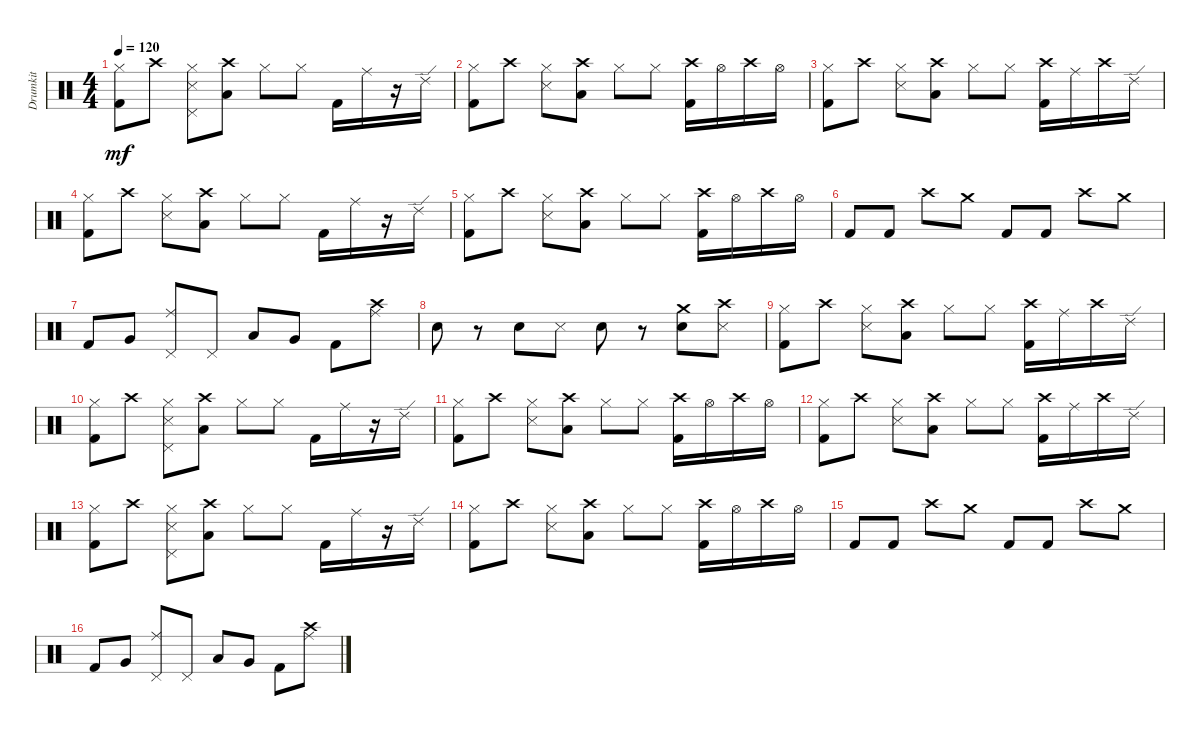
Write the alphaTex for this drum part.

\track ("Drumkit" "Drumkit") {instrument percussion}
\staff {score}
\articulation defaults
\ts (4 4)
\tempo 120
\clef neutral
\ks c
("Hi-Hat (closed)" "Kick (hit) 2").8{dy mf} "Crash high (hit)".8 ("Hi-Hat (closed)" "Snare (side stick) 3" "Pedal Hi-Hat (hit)").8 ("Crash high (hit)" "Low Floor Tom (hit)").8 "Hi-Hat (closed)".8 "Hi-Hat (closed)".8 "Kick (hit) 2".16 "Ride (middle)".16 r.16 "Ride (edge) 2".16 |
("Hi-Hat (closed)" "Kick (hit) 2").8 "Crash high (hit)".8 ("Hi-Hat (closed)" "Snare (side stick) 3").8 ("Crash high (hit)" "Low Floor Tom (hit)").8 "Hi-Hat (closed)".8 "Hi-Hat (closed)".8 ("Crash high (hit)" "Kick (hit) 2").16 "Hi-Hat (open)".16 "Crash high (hit)".16 "Hi-Hat (open)".16 |
("Hi-Hat (closed)" "Kick (hit) 2").8 "Crash high (hit)".8 ("Hi-Hat (closed)" "Snare (side stick) 3").8 ("Crash high (hit)" "Low Floor Tom (hit)").8 "Hi-Hat (closed)".8 "Hi-Hat (closed)".8 ("Crash high (hit)" "Kick (hit) 2").16 "Ride (middle)".16 "Crash high (hit)".16 "Ride (edge) 2".16 |
("Hi-Hat (closed)" "Kick (hit) 2").8 "Crash high (hit)".8 ("Hi-Hat (closed)" "Snare (side stick) 3").8 ("Crash high (hit)" "Low Floor Tom (hit)").8 "Hi-Hat (closed)".8 "Hi-Hat (closed)".8 "Kick (hit) 2".16 "Ride (middle)".16 r.16 "Ride (edge) 2".16 |
("Hi-Hat (closed)" "Kick (hit) 2").8 "Crash high (hit)".8 ("Hi-Hat (closed)" "Snare (side stick) 3").8 ("Crash high (hit)" "Low Floor Tom (hit)").8 "Hi-Hat (closed)".8 "Hi-Hat (closed)".8 ("Crash high (hit)" "Kick (hit) 2").16 "Hi-Hat (open)".16 "Crash high (hit)".16 "Hi-Hat (open)".16 |
"Kick (hit) 2".8 "Kick (hit) 2".8 "Crash high (hit)".8 "Crash medium (hit)".8 "Kick (hit) 2".8 "Kick (hit) 2".8 "Crash high (hit)".8 "Crash medium (hit)".8 |
"Kick (hit) 2".8 "Very Low Tom (hit)".8 ("Pedal Hi-Hat (hit)" "Ride (middle)").8 "Pedal Hi-Hat (hit)".8 "Low Floor Tom (hit)".8 "Very Low Tom (hit)".8 "Kick (hit) 2".8 ("Ride (middle)" "Crash high (hit)").8 |
"Snare (hit) 2".8 r.8 "Snare (hit) 2".8 "Snare (side stick) 3".8 "Snare (hit) 2".8 r.8 ("Snare (hit) 2" "Crash medium (hit)").8 ("Snare (side stick) 3" "Crash high (hit)").8 |
("Hi-Hat (closed)" "Kick (hit) 2").8 "Crash high (hit)".8 ("Hi-Hat (closed)" "Snare (side stick) 3").8 ("Crash high (hit)" "Low Floor Tom (hit)").8 "Hi-Hat (closed)".8 "Hi-Hat (closed)".8 ("Crash high (hit)" "Kick (hit) 2").16 "Ride (middle)".16 "Crash high (hit)".16 "Ride (edge) 2".16 |
("Hi-Hat (closed)" "Kick (hit) 2").8 "Crash high (hit)".8 ("Hi-Hat (closed)" "Snare (side stick) 3" "Pedal Hi-Hat (hit)").8 ("Crash high (hit)" "Low Floor Tom (hit)").8 "Hi-Hat (closed)".8 "Hi-Hat (closed)".8 "Kick (hit) 2".16 "Ride (middle)".16 r.16 "Ride (edge) 2".16 |
("Hi-Hat (closed)" "Kick (hit) 2").8 "Crash high (hit)".8 ("Hi-Hat (closed)" "Snare (side stick) 3").8 ("Crash high (hit)" "Low Floor Tom (hit)").8 "Hi-Hat (closed)".8 "Hi-Hat (closed)".8 ("Crash high (hit)" "Kick (hit) 2").16 "Hi-Hat (open)".16 "Crash high (hit)".16 "Hi-Hat (open)".16 |
("Hi-Hat (closed)" "Kick (hit) 2").8 "Crash high (hit)".8 ("Hi-Hat (closed)" "Snare (side stick) 3").8 ("Crash high (hit)" "Low Floor Tom (hit)").8 "Hi-Hat (closed)".8 "Hi-Hat (closed)".8 ("Crash high (hit)" "Kick (hit) 2").16 "Ride (middle)".16 "Crash high (hit)".16 "Ride (edge) 2".16 |
("Hi-Hat (closed)" "Kick (hit) 2").8 "Crash high (hit)".8 ("Hi-Hat (closed)" "Snare (side stick) 3" "Pedal Hi-Hat (hit)").8 ("Crash high (hit)" "Low Floor Tom (hit)").8 "Hi-Hat (closed)".8 "Hi-Hat (closed)".8 "Kick (hit) 2".16 "Ride (middle)".16 r.16 "Ride (edge) 2".16 |
("Hi-Hat (closed)" "Kick (hit) 2").8 "Crash high (hit)".8 ("Hi-Hat (closed)" "Snare (side stick) 3").8 ("Crash high (hit)" "Low Floor Tom (hit)").8 "Hi-Hat (closed)".8 "Hi-Hat (closed)".8 ("Crash high (hit)" "Kick (hit) 2").16 "Hi-Hat (open)".16 "Crash high (hit)".16 "Hi-Hat (open)".16 |
"Kick (hit) 2".8 "Kick (hit) 2".8 "Crash high (hit)".8 "Crash medium (hit)".8 "Kick (hit) 2".8 "Kick (hit) 2".8 "Crash high (hit)".8 "Crash medium (hit)".8 |
"Kick (hit) 2".8 "Very Low Tom (hit)".8 ("Pedal Hi-Hat (hit)" "Ride (middle)").8 "Pedal Hi-Hat (hit)".8 "Low Floor Tom (hit)".8 "Very Low Tom (hit)".8 "Kick (hit) 2".8 ("Ride (middle)" "Crash high (hit)").8
